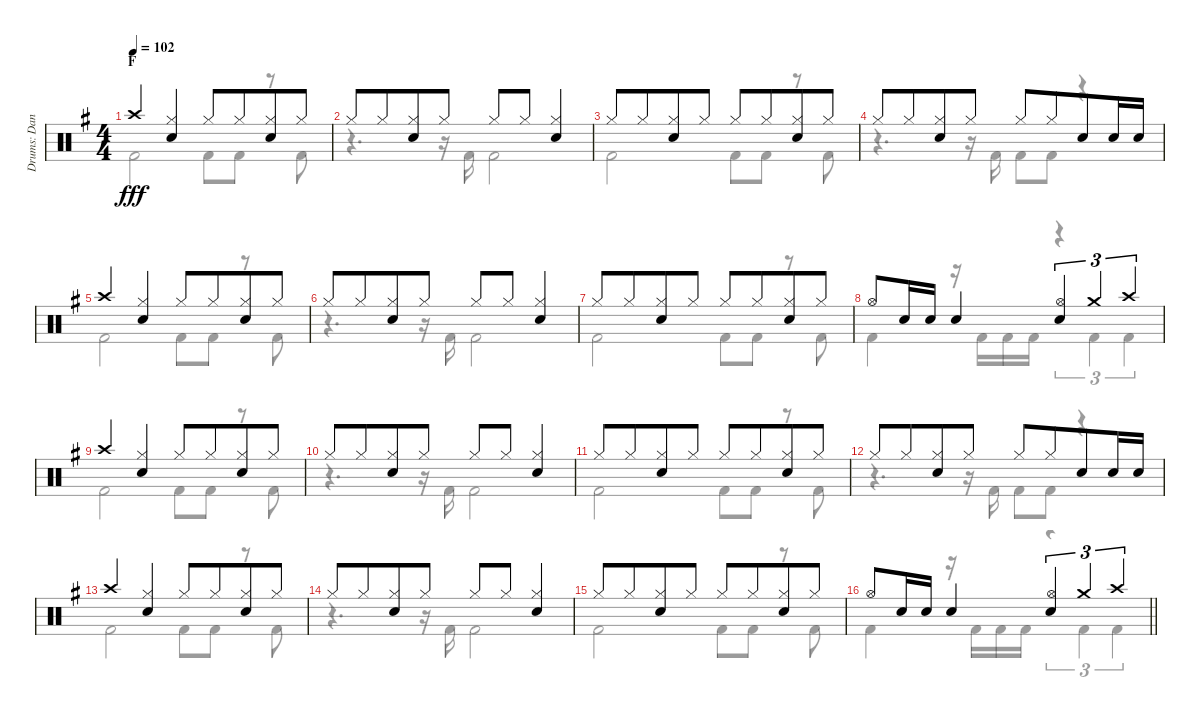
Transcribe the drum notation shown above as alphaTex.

\track ("Drums: Dana" "Drums: Dan") {instrument percussion}
\staff {score}
\articulation defaults
\voice
\ts (4 4)
\section ("" "F")
\tempo 102
\clef neutral
\ks g "Crash high (hit)".4{dy fff}
("Hi-Hat (closed)" "Snare (hit) 2").4 "Hi-Hat (closed)".8 "Hi-Hat (closed)".8{beam merge} ("Hi-Hat (closed)" "Snare (hit) 2").8 "Hi-Hat (closed)".8 |
"Hi-Hat (closed)".8 "Hi-Hat (closed)".8{beam merge} ("Hi-Hat (closed)" "Snare (hit) 2").8 "Hi-Hat (closed)".8 "Hi-Hat (closed)".8 "Hi-Hat (closed)".8{beam merge} ("Hi-Hat (closed)" "Snare (hit) 2").4 |
"Hi-Hat (closed)".8 "Hi-Hat (closed)".8{beam merge} ("Hi-Hat (closed)" "Snare (hit) 2").8 "Hi-Hat (closed)".8 "Hi-Hat (closed)".8 "Hi-Hat (closed)".8{beam merge} ("Hi-Hat (closed)" "Snare (hit) 2").8 "Hi-Hat (closed)".8 |
"Hi-Hat (closed)".8 "Hi-Hat (closed)".8{beam merge} ("Hi-Hat (closed)" "Snare (hit) 2").8 "Hi-Hat (closed)".8 "Hi-Hat (closed)".8 "Hi-Hat (closed)".8{beam merge} "Snare (hit) 2".8 "Snare (hit) 2".16 "Snare (hit) 2".16 |
"Crash high (hit)".4 ("Hi-Hat (closed)" "Snare (hit) 2").4 "Hi-Hat (closed)".8 "Hi-Hat (closed)".8{beam merge} ("Hi-Hat (closed)" "Snare (hit) 2").8 "Hi-Hat (closed)".8 |
"Hi-Hat (closed)".8 "Hi-Hat (closed)".8{beam merge} ("Hi-Hat (closed)" "Snare (hit) 2").8 "Hi-Hat (closed)".8 "Hi-Hat (closed)".8 "Hi-Hat (closed)".8{beam merge} ("Hi-Hat (closed)" "Snare (hit) 2").4 |
"Hi-Hat (closed)".8 "Hi-Hat (closed)".8{beam merge} ("Hi-Hat (closed)" "Snare (hit) 2").8 "Hi-Hat (closed)".8 "Hi-Hat (closed)".8 "Hi-Hat (closed)".8{beam merge} ("Hi-Hat (closed)" "Snare (hit) 2").8 "Hi-Hat (closed)".8 |
"Hi-Hat (open)".8 "Snare (hit) 2".16 "Snare (hit) 2".16 "Snare (hit) 2".4 ("Hi-Hat (open)" "Snare (hit) 2").4{tu (3 2)} "Crash medium (hit)".4{tu (3 2)} "Crash high (hit)".4{tu (3 2)} |
"Crash high (hit)".4 ("Hi-Hat (closed)" "Snare (hit) 2").4 "Hi-Hat (closed)".8 "Hi-Hat (closed)".8{beam merge} ("Hi-Hat (closed)" "Snare (hit) 2").8 "Hi-Hat (closed)".8 |
"Hi-Hat (closed)".8 "Hi-Hat (closed)".8{beam merge} ("Hi-Hat (closed)" "Snare (hit) 2").8 "Hi-Hat (closed)".8 "Hi-Hat (closed)".8 "Hi-Hat (closed)".8{beam merge} ("Hi-Hat (closed)" "Snare (hit) 2").4 |
"Hi-Hat (closed)".8 "Hi-Hat (closed)".8{beam merge} ("Hi-Hat (closed)" "Snare (hit) 2").8 "Hi-Hat (closed)".8 "Hi-Hat (closed)".8 "Hi-Hat (closed)".8{beam merge} ("Hi-Hat (closed)" "Snare (hit) 2").8 "Hi-Hat (closed)".8 |
"Hi-Hat (closed)".8 "Hi-Hat (closed)".8{beam merge} ("Hi-Hat (closed)" "Snare (hit) 2").8 "Hi-Hat (closed)".8 "Hi-Hat (closed)".8 "Hi-Hat (closed)".8{beam merge} "Snare (hit) 2".8 "Snare (hit) 2".16 "Snare (hit) 2".16 |
"Crash high (hit)".4 ("Hi-Hat (closed)" "Snare (hit) 2").4 "Hi-Hat (closed)".8 "Hi-Hat (closed)".8{beam merge} ("Hi-Hat (closed)" "Snare (hit) 2").8 "Hi-Hat (closed)".8 |
"Hi-Hat (closed)".8 "Hi-Hat (closed)".8{beam merge} ("Hi-Hat (closed)" "Snare (hit) 2").8 "Hi-Hat (closed)".8 "Hi-Hat (closed)".8 "Hi-Hat (closed)".8{beam merge} ("Hi-Hat (closed)" "Snare (hit) 2").4 |
"Hi-Hat (closed)".8 "Hi-Hat (closed)".8{beam merge} ("Hi-Hat (closed)" "Snare (hit) 2").8 "Hi-Hat (closed)".8 "Hi-Hat (closed)".8 "Hi-Hat (closed)".8{beam merge} ("Hi-Hat (closed)" "Snare (hit) 2").8 "Hi-Hat (closed)".8 |
\barLineRight lightlight "Hi-Hat (open)".8 "Snare (hit) 2".16 "Snare (hit) 2".16 "Snare (hit) 2".4
("Hi-Hat (open)" "Snare (hit) 2").4{tu (3 2)} "Crash medium (hit)".4{tu (3 2)} "Crash high (hit)".4{tu (3 2)}
\voice
\clef neutral
\ottava regular
\simile none
\ks g "Kick (hit) 2".2{dy fff} "Kick (hit) 2".8 "Kick (hit) 2".8
r.8 "Kick (hit) 2".8 |
r.4{d} r.16 "Kick (hit) 2".16 "Kick (hit) 2".2 |
"Kick (hit) 2".2 "Kick (hit) 2".8 "Kick (hit) 2".8 r.8 "Kick (hit) 2".8 |
r.4{d} r.16 "Kick (hit) 2".16 "Kick (hit) 2".8 "Kick (hit) 2".8 r.4 |
"Kick (hit) 2".2 "Kick (hit) 2".8 "Kick (hit) 2".8 r.8 "Kick (hit) 2".8 |
r.4{d} r.16 "Kick (hit) 2".16 "Kick (hit) 2".2 |
"Kick (hit) 2".2 "Kick (hit) 2".8 "Kick (hit) 2".8 r.8 "Kick (hit) 2".8 |
"Kick (hit) 2".4 r.16 "Kick (hit) 2".16 "Kick (hit) 2".16 "Kick (hit) 2".16 r.4{tu (3 2)} "Kick (hit) 2".4{tu (3 2)} "Kick (hit) 2".4{tu (3 2)} |
"Kick (hit) 2".2 "Kick (hit) 2".8 "Kick (hit) 2".8 r.8 "Kick (hit) 2".8 |
r.4{d} r.16 "Kick (hit) 2".16 "Kick (hit) 2".2 |
"Kick (hit) 2".2 "Kick (hit) 2".8 "Kick (hit) 2".8 r.8 "Kick (hit) 2".8 |
r.4{d} r.16 "Kick (hit) 2".16 "Kick (hit) 2".8 "Kick (hit) 2".8 r.4 |
"Kick (hit) 2".2 "Kick (hit) 2".8 "Kick (hit) 2".8 r.8 "Kick (hit) 2".8 |
r.4{d} r.16 "Kick (hit) 2".16 "Kick (hit) 2".2 |
"Kick (hit) 2".2 "Kick (hit) 2".8 "Kick (hit) 2".8 r.8 "Kick (hit) 2".8 |
\barLineRight lightlight "Kick (hit) 2".4
r.16 "Kick (hit) 2".16 "Kick (hit) 2".16 "Kick (hit) 2".16 r.4{tu (3 2)} "Kick (hit) 2".4{tu (3 2)} "Kick (hit) 2".4{tu (3 2)}
